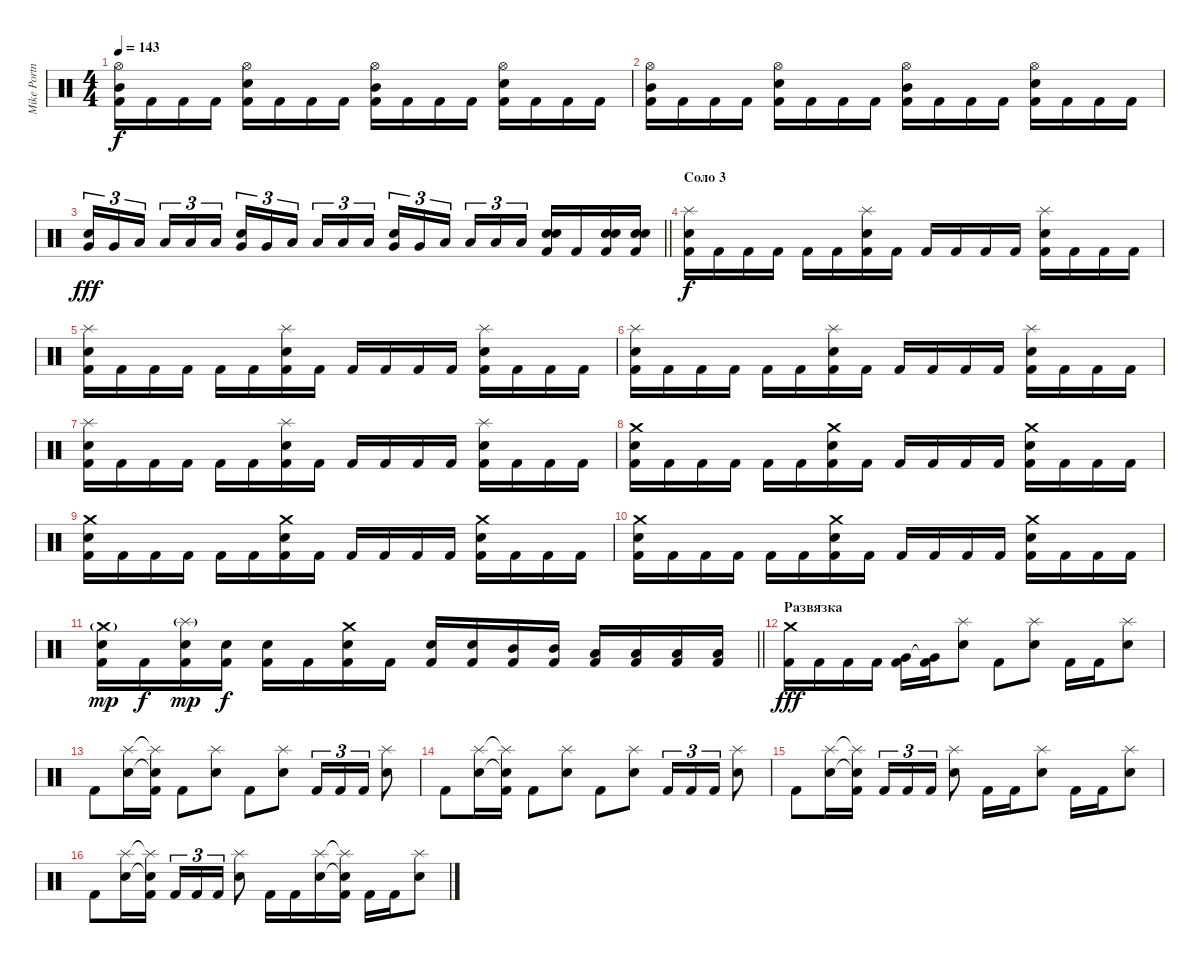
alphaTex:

\track ("Mike Portnoy" "Mike Portn") {instrument percussion}
\staff {score}
\articulation defaults
\ts (4 4)
\tempo 143
\clef neutral
\ks c
("Hi-Hat (open)" "Mid Tom (hit)" "Kick (hit) 2").16{dy f} "Kick (hit) 2".16 "Kick (hit) 2".16 "Kick (hit) 2".16 ("Hi-Hat (open)" "Electric Snare (hit)" "Kick (hit) 2").16 "Kick (hit) 2".16 "Kick (hit) 2".16 "Kick (hit) 2".16 ("Hi-Hat (open)" "Mid Tom (hit)" "Kick (hit) 2").16 "Kick (hit) 2".16 "Kick (hit) 2".16 "Kick (hit) 2".16 ("Hi-Hat (open)" "Electric Snare (hit)" "Kick (hit) 2").16 "Kick (hit) 2".16 "Kick (hit) 2".16 "Kick (hit) 2".16 |
("Hi-Hat (open)" "Mid Tom (hit)" "Kick (hit) 2").16 "Kick (hit) 2".16 "Kick (hit) 2".16 "Kick (hit) 2".16 ("Hi-Hat (open)" "Electric Snare (hit)" "Kick (hit) 2").16 "Kick (hit) 2".16 "Kick (hit) 2".16 "Kick (hit) 2".16 ("Hi-Hat (open)" "Mid Tom (hit)" "Kick (hit) 2").16 "Kick (hit) 2".16 "Kick (hit) 2".16 "Kick (hit) 2".16 ("Hi-Hat (open)" "Electric Snare (hit)" "Kick (hit) 2").16 "Kick (hit) 2".16 "Kick (hit) 2".16 "Kick (hit) 2".16 |
\barLineRight lightlight
("Electric Snare (hit)" "Very Low Tom (hit)").16{tu (3 2) dy fff} "Very Low Tom (hit)".16{tu (3 2)} "Low Tom (hit)".16{tu (3 2) beam splitsecondary} "Low Tom (hit)".16{tu (3 2)} "Low Tom (hit)".16{tu (3 2)} "Low Tom (hit)".16{tu (3 2)} ("Electric Snare (hit)" "Very Low Tom (hit)").16{tu (3 2)} "Very Low Tom (hit)".16{tu (3 2)} "Low Tom (hit)".16{tu (3 2) beam splitsecondary} "Low Tom (hit)".16{tu (3 2)} "Low Tom (hit)".16{tu (3 2)} "Low Tom (hit)".16{tu (3 2)} ("Electric Snare (hit)" "Very Low Tom (hit)").16{tu (3 2)} "Very Low Tom (hit)".16{tu (3 2)} "Low Tom (hit)".16{tu (3 2) beam splitsecondary} "Low Tom (hit)".16{tu (3 2)} "Low Tom (hit)".16{tu (3 2)} "Low Tom (hit)".16{tu (3 2)} ("Electric Snare (hit)" "Electric Snare (hit)" "Kick (hit) 2").16 "Kick (hit) 2".16 ("Electric Snare (hit)" "Electric Snare (hit)" "Kick (hit) 2").16 ("Electric Snare (hit)" "Electric Snare (hit)" "Kick (hit) 2").16 |
\section ("" "Соло 3")
("Splash (hit)" "Electric Snare (hit)" "Kick (hit) 2").16{dy f} "Kick (hit) 2".16 "Kick (hit) 2".16 "Kick (hit) 2".16 "Kick (hit) 2".16 "Kick (hit) 2".16 ("Splash (hit)" "Electric Snare (hit)" "Kick (hit) 2").16 "Kick (hit) 2".16 "Kick (hit) 2".16 "Kick (hit) 2".16 "Kick (hit) 2".16 "Kick (hit) 2".16 ("Splash (hit)" "Electric Snare (hit)" "Kick (hit) 2").16 "Kick (hit) 2".16 "Kick (hit) 2".16 "Kick (hit) 2".16 |
("Splash (hit)" "Electric Snare (hit)" "Kick (hit) 2").16 "Kick (hit) 2".16 "Kick (hit) 2".16 "Kick (hit) 2".16 "Kick (hit) 2".16 "Kick (hit) 2".16 ("Splash (hit)" "Electric Snare (hit)" "Kick (hit) 2").16 "Kick (hit) 2".16 "Kick (hit) 2".16 "Kick (hit) 2".16 "Kick (hit) 2".16 "Kick (hit) 2".16 ("Splash (hit)" "Electric Snare (hit)" "Kick (hit) 2").16 "Kick (hit) 2".16 "Kick (hit) 2".16 "Kick (hit) 2".16 |
("Splash (hit)" "Electric Snare (hit)" "Kick (hit) 2").16 "Kick (hit) 2".16 "Kick (hit) 2".16 "Kick (hit) 2".16 "Kick (hit) 2".16 "Kick (hit) 2".16 ("Splash (hit)" "Electric Snare (hit)" "Kick (hit) 2").16 "Kick (hit) 2".16 "Kick (hit) 2".16 "Kick (hit) 2".16 "Kick (hit) 2".16 "Kick (hit) 2".16 ("Splash (hit)" "Electric Snare (hit)" "Kick (hit) 2").16 "Kick (hit) 2".16 "Kick (hit) 2".16 "Kick (hit) 2".16 |
("Splash (hit)" "Electric Snare (hit)" "Kick (hit) 2").16 "Kick (hit) 2".16 "Kick (hit) 2".16 "Kick (hit) 2".16 "Kick (hit) 2".16 "Kick (hit) 2".16 ("Splash (hit)" "Electric Snare (hit)" "Kick (hit) 2").16 "Kick (hit) 2".16 "Kick (hit) 2".16 "Kick (hit) 2".16 "Kick (hit) 2".16 "Kick (hit) 2".16 ("Splash (hit)" "Electric Snare (hit)" "Kick (hit) 2").16 "Kick (hit) 2".16 "Kick (hit) 2".16 "Kick (hit) 2".16 |
("Crash medium (hit)" "Electric Snare (hit)" "Kick (hit) 2").16 "Kick (hit) 2".16 "Kick (hit) 2".16 "Kick (hit) 2".16 "Kick (hit) 2".16 "Kick (hit) 2".16 ("Crash medium (hit)" "Electric Snare (hit)" "Kick (hit) 2").16 "Kick (hit) 2".16 "Kick (hit) 2".16 "Kick (hit) 2".16 "Kick (hit) 2".16 "Kick (hit) 2".16 ("Crash medium (hit)" "Electric Snare (hit)" "Kick (hit) 2").16 "Kick (hit) 2".16 "Kick (hit) 2".16 "Kick (hit) 2".16 |
("Crash medium (hit)" "Electric Snare (hit)" "Kick (hit) 2").16 "Kick (hit) 2".16 "Kick (hit) 2".16 "Kick (hit) 2".16 "Kick (hit) 2".16 "Kick (hit) 2".16 ("Crash medium (hit)" "Electric Snare (hit)" "Kick (hit) 2").16 "Kick (hit) 2".16 "Kick (hit) 2".16 "Kick (hit) 2".16 "Kick (hit) 2".16 "Kick (hit) 2".16 ("Crash medium (hit)" "Electric Snare (hit)" "Kick (hit) 2").16 "Kick (hit) 2".16 "Kick (hit) 2".16 "Kick (hit) 2".16 |
("Crash medium (hit)" "Electric Snare (hit)" "Kick (hit) 2").16 "Kick (hit) 2".16 "Kick (hit) 2".16 "Kick (hit) 2".16 "Kick (hit) 2".16 "Kick (hit) 2".16 ("Crash medium (hit)" "Electric Snare (hit)" "Kick (hit) 2").16 "Kick (hit) 2".16 "Kick (hit) 2".16 "Kick (hit) 2".16 "Kick (hit) 2".16 "Kick (hit) 2".16 ("Crash medium (hit)" "Electric Snare (hit)" "Kick (hit) 2").16 "Kick (hit) 2".16 "Kick (hit) 2".16 "Kick (hit) 2".16 |
\barLineRight lightlight
("Crash medium (hit)"{g} "Electric Snare (hit)" "Kick (hit) 2").16{dy mp} "Kick (hit) 2".16{dy f} ("Splash (hit)"{g} "Electric Snare (hit)" "Kick (hit) 2").16{dy mp} ("Electric Snare (hit)" "Kick (hit) 2").16{dy f} ("Electric Snare (hit)" "Kick (hit) 2").16 "Kick (hit) 2".16 ("Crash medium (hit)" "Electric Snare (hit)" "Kick (hit) 2").16 "Kick (hit) 2".16 ("Electric Snare (hit)" "Kick (hit) 2").16 ("Electric Snare (hit)" "Kick (hit) 2").16 ("Mid Tom (hit)" "Kick (hit) 2").16 ("Mid Tom (hit)" "Kick (hit) 2").16 ("Low Tom (hit)" "Kick (hit) 2").16 ("Low Tom (hit)" "Kick (hit) 2").16 ("Low Tom (hit)" "Kick (hit) 2").16 ("Low Tom (hit)" "Kick (hit) 2").16 |
\section ("" "Развязка")
("Crash medium (hit)" "Kick (hit) 2").16{dy fff} "Kick (hit) 2".16 "Kick (hit) 2".16 "Kick (hit) 2".16 ("Very Low Tom (hit)" "Kick (hit) 2").16 ("Very Low Tom (hit)"{t} "Kick (hit) 2").16 ("Splash (hit)" "Electric Snare (hit)").8 "Kick (hit) 2".8 ("Splash (hit)" "Electric Snare (hit)").8 "Kick (hit) 2".16 "Kick (hit) 2".16 ("Splash (hit)" "Electric Snare (hit)").8 |
"Kick (hit) 2".8 ("Splash (hit)" "Electric Snare (hit)").16 ("Splash (hit)"{t} "Electric Snare (hit)"{t} "Kick (hit) 2").16 "Kick (hit) 2".8 ("Splash (hit)" "Electric Snare (hit)").8 "Kick (hit) 2".8 ("Splash (hit)" "Electric Snare (hit)").8 "Kick (hit) 2".16{tu (3 2)} "Kick (hit) 2".16{tu (3 2)} "Kick (hit) 2".16{tu (3 2)} ("Splash (hit)" "Electric Snare (hit)").8 |
"Kick (hit) 2".8 ("Splash (hit)" "Electric Snare (hit)").16 ("Splash (hit)"{t} "Electric Snare (hit)"{t} "Kick (hit) 2").16 "Kick (hit) 2".8 ("Splash (hit)" "Electric Snare (hit)").8 "Kick (hit) 2".8 ("Splash (hit)" "Electric Snare (hit)").8 "Kick (hit) 2".16{tu (3 2)} "Kick (hit) 2".16{tu (3 2)} "Kick (hit) 2".16{tu (3 2)} ("Splash (hit)" "Electric Snare (hit)").8 |
"Kick (hit) 2".8 ("Splash (hit)" "Electric Snare (hit)").16 ("Splash (hit)"{t} "Electric Snare (hit)"{t} "Kick (hit) 2").16 "Kick (hit) 2".16{tu (3 2)} "Kick (hit) 2".16{tu (3 2)} "Kick (hit) 2".16{tu (3 2)} ("Splash (hit)" "Electric Snare (hit)").8 "Kick (hit) 2".16 "Kick (hit) 2".16 ("Splash (hit)" "Electric Snare (hit)").8 "Kick (hit) 2".16 "Kick (hit) 2".16 ("Splash (hit)" "Electric Snare (hit)").8 |
"Kick (hit) 2".8 ("Splash (hit)" "Electric Snare (hit)").16 ("Splash (hit)"{t} "Electric Snare (hit)"{t} "Kick (hit) 2").16 "Kick (hit) 2".16{tu (3 2)} "Kick (hit) 2".16{tu (3 2)} "Kick (hit) 2".16{tu (3 2)} ("Splash (hit)" "Electric Snare (hit)").8 "Kick (hit) 2".16 "Kick (hit) 2".16 ("Splash (hit)" "Electric Snare (hit)").16 ("Splash (hit)"{t} "Electric Snare (hit)"{t} "Kick (hit) 2").16 "Kick (hit) 2".16 "Kick (hit) 2".16 ("Splash (hit)" "Electric Snare (hit)").8
